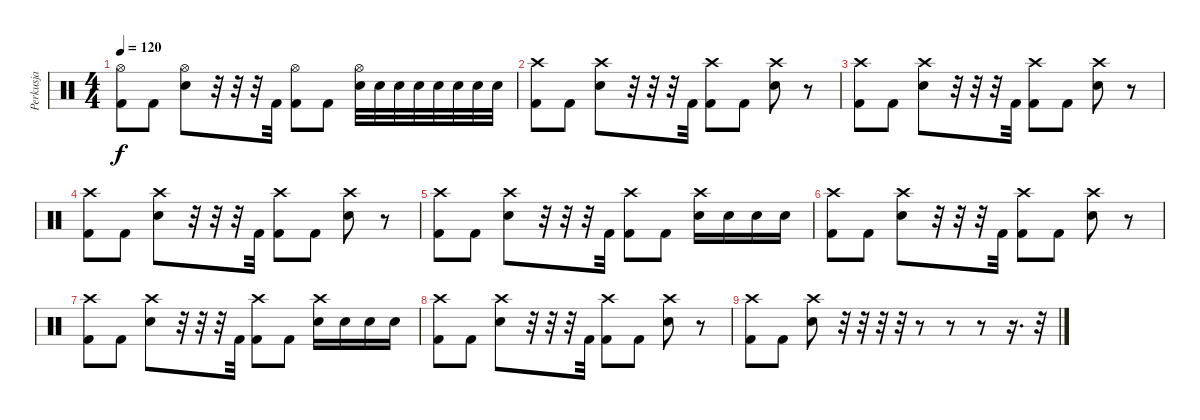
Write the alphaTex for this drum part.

\track ("Perkusja" "Perkusja") {instrument percussion}
\staff {score}
\articulation defaults
\ts (4 4)
\tempo 120
\clef neutral
\ks c
("Hi-Hat (open)" "Kick (hit) 2").8{dy f} "Kick (hit) 2".8 ("Hi-Hat (open)" "Electric Snare (hit)").8 r.32 r.32 r.32 "Kick (hit) 2".32 ("Hi-Hat (open)" "Kick (hit) 2").8 "Kick (hit) 2".8 ("Hi-Hat (open)" "Electric Snare (hit)").32 "Electric Snare (hit)".32 "Electric Snare (hit)".32 "Electric Snare (hit)".32 "Electric Snare (hit)".32 "Electric Snare (hit)".32 "Electric Snare (hit)".32 "Electric Snare (hit)".32 |
("Crash high (hit)" "Kick (hit) 2").8 "Kick (hit) 2".8 ("Crash high (hit)" "Electric Snare (hit)").8 r.32 r.32 r.32 "Kick (hit) 2".32 ("Crash high (hit)" "Kick (hit) 2").8 "Kick (hit) 2".8 ("Crash high (hit)" "Electric Snare (hit)").8 r.8 |
("Crash high (hit)" "Kick (hit) 2").8 "Kick (hit) 2".8 ("Crash high (hit)" "Electric Snare (hit)").8 r.32 r.32 r.32 "Kick (hit) 2".32 ("Crash high (hit)" "Kick (hit) 2").8 "Kick (hit) 2".8 ("Crash high (hit)" "Electric Snare (hit)").8 r.8 |
("Crash high (hit)" "Kick (hit) 2").8 "Kick (hit) 2".8 ("Crash high (hit)" "Electric Snare (hit)").8 r.32 r.32 r.32 "Kick (hit) 2".32 ("Crash high (hit)" "Kick (hit) 2").8 "Kick (hit) 2".8 ("Crash high (hit)" "Electric Snare (hit)").8 r.8 |
("Crash high (hit)" "Kick (hit) 2").8 "Kick (hit) 2".8 ("Crash high (hit)" "Electric Snare (hit)").8 r.32 r.32 r.32 "Kick (hit) 2".32 ("Crash high (hit)" "Kick (hit) 2").8 "Kick (hit) 2".8 ("Crash high (hit)" "Electric Snare (hit)").16 "Electric Snare (hit)".16 "Electric Snare (hit)".16 "Electric Snare (hit)".16 |
("Crash high (hit)" "Kick (hit) 2").8 "Kick (hit) 2".8 ("Crash high (hit)" "Electric Snare (hit)").8 r.32 r.32 r.32 "Kick (hit) 2".32 ("Crash high (hit)" "Kick (hit) 2").8 "Kick (hit) 2".8 ("Crash high (hit)" "Electric Snare (hit)").8 r.8 |
("Crash high (hit)" "Kick (hit) 2").8 "Kick (hit) 2".8 ("Crash high (hit)" "Electric Snare (hit)").8 r.32 r.32 r.32 "Kick (hit) 2".32 ("Crash high (hit)" "Kick (hit) 2").8 "Kick (hit) 2".8 ("Crash high (hit)" "Electric Snare (hit)").16 "Electric Snare (hit)".16 "Electric Snare (hit)".16 "Electric Snare (hit)".16 |
("Crash high (hit)" "Kick (hit) 2").8 "Kick (hit) 2".8 ("Crash high (hit)" "Electric Snare (hit)").8 r.32 r.32 r.32 "Kick (hit) 2".32 ("Crash high (hit)" "Kick (hit) 2").8 "Kick (hit) 2".8 ("Crash high (hit)" "Electric Snare (hit)").8 r.8 |
("Crash high (hit)" "Kick (hit) 2").8 "Kick (hit) 2".8 ("Crash high (hit)" "Electric Snare (hit)").8 r.32 r.32 r.32 r.32 r.8 r.8 r.8 r.16{d} r.32
